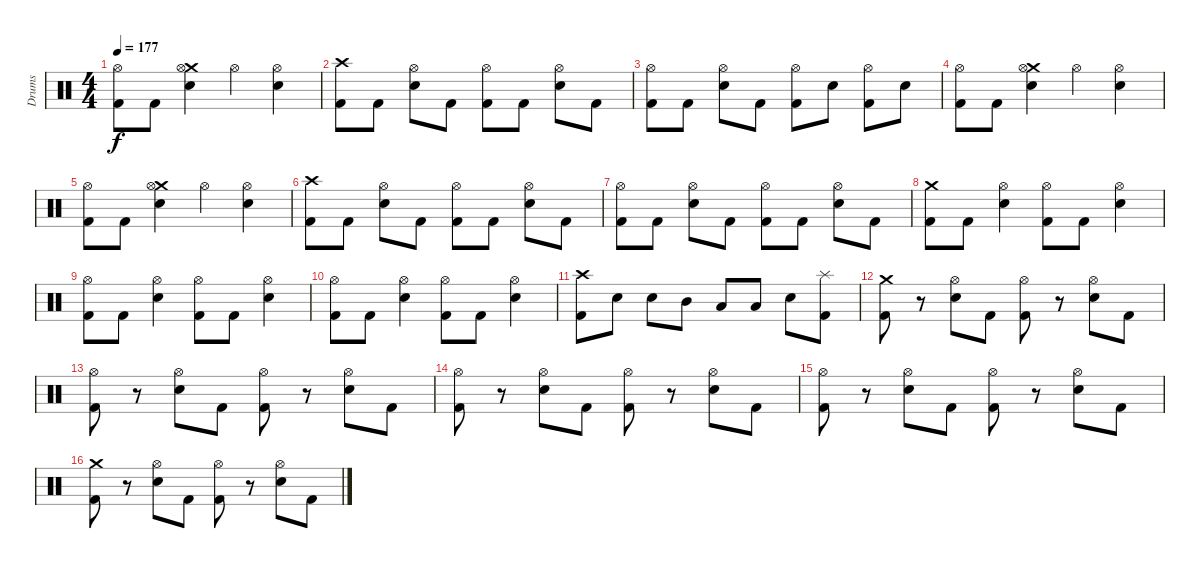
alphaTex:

\track ("Drums" "Drums") {solo instrument percussion}
\staff {score}
\articulation defaults
\ts (4 4)
\tempo 177
\clef neutral
\ks c
("Hi-Hat (open)" "Kick (hit) 2").8{dy f} "Kick (hit) 2".8 ("Crash medium (hit)" "Hi-Hat (open)" "Snare (hit) 2").4 "Hi-Hat (open)".4 ("Hi-Hat (open)" "Snare (hit) 2").4 |
("Crash high (hit)" "Kick (hit) 2").8 "Kick (hit) 2".8 ("Hi-Hat (open)" "Snare (hit) 2").8 "Kick (hit) 2".8 ("Hi-Hat (open)" "Kick (hit) 2").8 "Kick (hit) 2".8 ("Hi-Hat (open)" "Snare (hit) 2").8 "Kick (hit) 2".8 |
("Hi-Hat (open)" "Kick (hit) 2").8 "Kick (hit) 2".8 ("Hi-Hat (open)" "Snare (hit) 2").8 "Kick (hit) 2".8 ("Hi-Hat (open)" "Kick (hit) 2").8 "Snare (hit) 2".8 ("Hi-Hat (open)" "Kick (hit) 2").8 "Snare (hit) 2".8 |
("Hi-Hat (open)" "Kick (hit) 2").8 "Kick (hit) 2".8 ("Crash medium (hit)" "Hi-Hat (open)" "Snare (hit) 2").4 "Hi-Hat (open)".4 ("Hi-Hat (open)" "Snare (hit) 2").4 |
("Hi-Hat (open)" "Kick (hit) 2").8 "Kick (hit) 2".8 ("Crash medium (hit)" "Hi-Hat (open)" "Snare (hit) 2").4 "Hi-Hat (open)".4 ("Hi-Hat (open)" "Snare (hit) 2").4 |
("Crash high (hit)" "Kick (hit) 2").8 "Kick (hit) 2".8 ("Hi-Hat (open)" "Snare (hit) 2").8 "Kick (hit) 2".8 ("Hi-Hat (open)" "Kick (hit) 2").8 "Kick (hit) 2".8 ("Hi-Hat (open)" "Snare (hit) 2").8 "Kick (hit) 2".8 |
("Hi-Hat (open)" "Kick (hit) 2").8 "Kick (hit) 2".8 ("Hi-Hat (open)" "Snare (hit) 2").8 "Kick (hit) 2".8 ("Hi-Hat (open)" "Kick (hit) 2").8 "Kick (hit) 2".8 ("Hi-Hat (open)" "Snare (hit) 2").8 "Kick (hit) 2".8 |
("Crash medium (hit)" "Kick (hit) 2").8 "Kick (hit) 2".8 ("Hi-Hat (open)" "Snare (hit) 2").4 ("Hi-Hat (open)" "Kick (hit) 2").8 "Kick (hit) 2".8 ("Hi-Hat (open)" "Snare (hit) 2").4 |
("Hi-Hat (open)" "Kick (hit) 2").8 "Kick (hit) 2".8 ("Hi-Hat (open)" "Snare (hit) 2").4 ("Hi-Hat (open)" "Kick (hit) 2").8 "Kick (hit) 2".8 ("Hi-Hat (open)" "Snare (hit) 2").4 |
("Hi-Hat (open)" "Kick (hit) 2").8 "Kick (hit) 2".8 ("Hi-Hat (open)" "Snare (hit) 2").4 ("Hi-Hat (open)" "Kick (hit) 2").8 "Kick (hit) 2".8 ("Hi-Hat (open)" "Snare (hit) 2").4 |
("Crash high (hit)" "Kick (hit) 2").8 "Snare (hit) 2".8 "Snare (hit) 2".8 "Mid Tom (hit)".8 "Low Tom (hit)".8 "Low Floor Tom (hit)".8 "Snare (hit) 2".8 ("Splash (hit)" "Kick (hit) 2").8 |
("Crash medium (hit)" "Kick (hit) 2").8 r.8 ("Hi-Hat (open)" "Snare (hit) 2").8 "Kick (hit) 2".8 ("Hi-Hat (open)" "Kick (hit) 2").8 r.8 ("Hi-Hat (open)" "Snare (hit) 2").8 "Kick (hit) 2".8 |
("Hi-Hat (open)" "Kick (hit) 2").8 r.8 ("Hi-Hat (open)" "Snare (hit) 2").8 "Kick (hit) 2".8 ("Hi-Hat (open)" "Kick (hit) 2").8 r.8 ("Hi-Hat (open)" "Snare (hit) 2").8 "Kick (hit) 2".8 |
("Hi-Hat (open)" "Kick (hit) 2").8 r.8 ("Hi-Hat (open)" "Snare (hit) 2").8 "Kick (hit) 2".8 ("Hi-Hat (open)" "Kick (hit) 2").8 r.8 ("Hi-Hat (open)" "Snare (hit) 2").8 "Kick (hit) 2".8 |
("Hi-Hat (open)" "Kick (hit) 2").8 r.8 ("Hi-Hat (open)" "Snare (hit) 2").8 "Kick (hit) 2".8 ("Hi-Hat (open)" "Kick (hit) 2").8 r.8 ("Hi-Hat (open)" "Snare (hit) 2").8 "Kick (hit) 2".8 |
("Crash medium (hit)" "Kick (hit) 2").8 r.8 ("Hi-Hat (open)" "Snare (hit) 2").8 "Kick (hit) 2".8 ("Hi-Hat (open)" "Kick (hit) 2").8 r.8 ("Hi-Hat (open)" "Snare (hit) 2").8 "Kick (hit) 2".8
